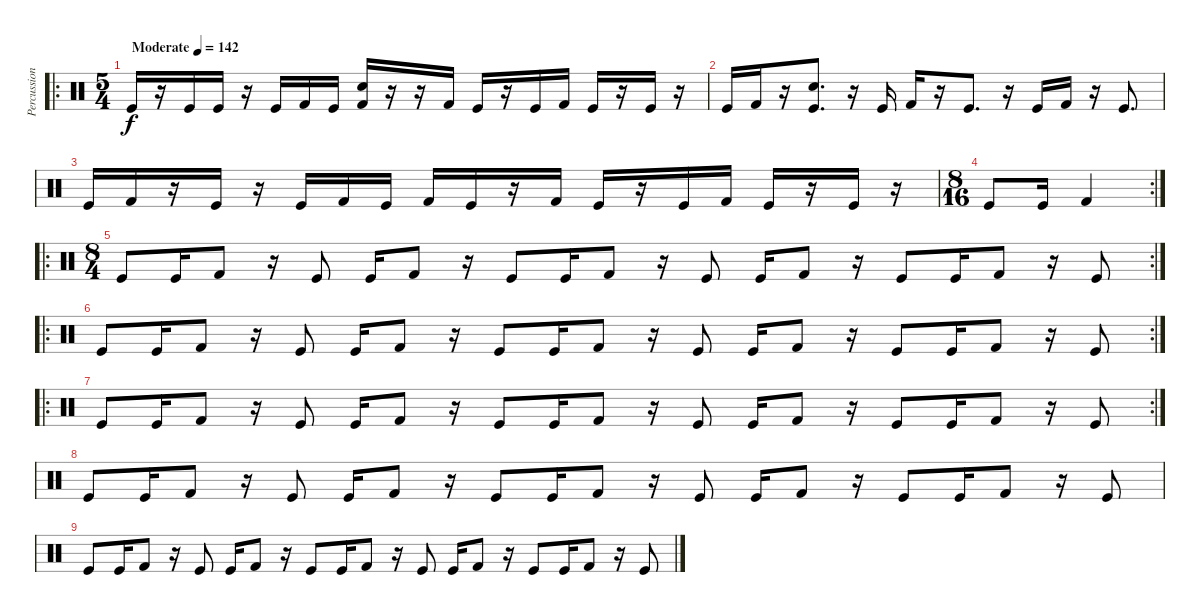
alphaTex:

\track ("Percussion" "Percussion") {instrument percussion}
\staff {score}
\articulation defaults
\ro
\ts (5 4)
\tempo (142 "Moderate")
\clef neutral
\ks c "Kick (hit)".16{dy f}
r.16 "Kick (hit)".16 "Kick (hit)".16 r.16 "Kick (hit)".16 "Kick (hit) 2".16 "Kick (hit)".16 ("Electric Snare (hit)" "Kick (hit) 2").16 r.16 r.16 "Kick (hit) 2".16 "Kick (hit)".16 r.16 "Kick (hit)".16 "Kick (hit) 2".16 "Kick (hit)".16 r.16 "Kick (hit)".16 r.16 |
"Kick (hit)".16 "Kick (hit) 2".16 r.16 ("Electric Snare (hit)" "Kick (hit)").8{d} r.16 "Kick (hit)".16 "Kick (hit) 2".16 r.16 "Kick (hit)".8{d} r.16 "Kick (hit)".16 "Kick (hit) 2".16 r.16 "Kick (hit)".8{d} |
"Kick (hit)".16 "Kick (hit) 2".16 r.16 "Kick (hit)".16 r.16 "Kick (hit)".16 "Kick (hit) 2".16 "Kick (hit)".16 "Kick (hit) 2".16 "Kick (hit)".16 r.16 "Kick (hit) 2".16 "Kick (hit)".16 r.16 "Kick (hit)".16 "Kick (hit) 2".16 "Kick (hit)".16 r.16 "Kick (hit)".16 r.16 |
\rc 2
\ts (8 16)
"Kick (hit)".8 "Kick (hit)".16 "Kick (hit) 2".4 |
\ro
\rc 2
\ts (8 4)
"Kick (hit)".8 "Kick (hit)".16 "Kick (hit) 2".8 r.16 "Kick (hit)".8 "Kick (hit)".16 "Kick (hit) 2".8 r.16 "Kick (hit)".8 "Kick (hit)".16 "Kick (hit) 2".8 r.16 "Kick (hit)".8 "Kick (hit)".16 "Kick (hit) 2".8 r.16 "Kick (hit)".8 "Kick (hit)".16 "Kick (hit) 2".8 r.16 "Kick (hit)".8 |
\ro
\rc 2 "Kick (hit)".8 "Kick (hit)".16 "Kick (hit) 2".8
r.16 "Kick (hit)".8 "Kick (hit)".16 "Kick (hit) 2".8 r.16 "Kick (hit)".8 "Kick (hit)".16 "Kick (hit) 2".8 r.16 "Kick (hit)".8 "Kick (hit)".16 "Kick (hit) 2".8 r.16 "Kick (hit)".8 "Kick (hit)".16 "Kick (hit) 2".8 r.16 "Kick (hit)".8 |
\ro
\rc 2 "Kick (hit)".8 "Kick (hit)".16 "Kick (hit) 2".8
r.16 "Kick (hit)".8 "Kick (hit)".16 "Kick (hit) 2".8 r.16 "Kick (hit)".8 "Kick (hit)".16 "Kick (hit) 2".8 r.16 "Kick (hit)".8 "Kick (hit)".16 "Kick (hit) 2".8 r.16 "Kick (hit)".8 "Kick (hit)".16 "Kick (hit) 2".8 r.16 "Kick (hit)".8 |
"Kick (hit)".8 "Kick (hit)".16 "Kick (hit) 2".8 r.16 "Kick (hit)".8 "Kick (hit)".16 "Kick (hit) 2".8 r.16 "Kick (hit)".8 "Kick (hit)".16 "Kick (hit) 2".8 r.16 "Kick (hit)".8 "Kick (hit)".16 "Kick (hit) 2".8 r.16 "Kick (hit)".8 "Kick (hit)".16 "Kick (hit) 2".8 r.16 "Kick (hit)".8 |
"Kick (hit)".8 "Kick (hit)".16 "Kick (hit) 2".8 r.16 "Kick (hit)".8 "Kick (hit)".16 "Kick (hit) 2".8 r.16 "Kick (hit)".8 "Kick (hit)".16 "Kick (hit) 2".8 r.16 "Kick (hit)".8 "Kick (hit)".16 "Kick (hit) 2".8 r.16 "Kick (hit)".8 "Kick (hit)".16 "Kick (hit) 2".8 r.16 "Kick (hit)".8
